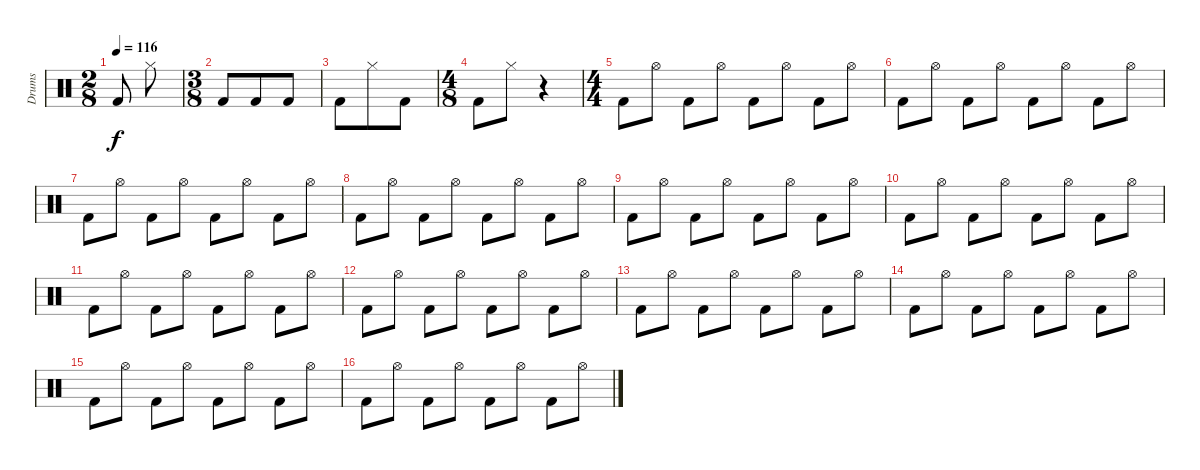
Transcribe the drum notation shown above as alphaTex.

\track ("Drums" "Drums") {instrument percussion}
\staff {score}
\articulation defaults
\ts (2 8)
\tempo 116
\clef neutral
\ks c "Kick (hit) 2".8{dy f} "Hi-Hat (closed)".8
|
\ts (3 8)
"Kick (hit) 2".8 "Kick (hit) 2".8 "Kick (hit) 2".8 |
"Kick (hit) 2".8 "Hi-Hat (closed)".8 "Kick (hit) 2".8 |
\ts (4 8)
"Kick (hit) 2".8 "Hi-Hat (closed)".8 r.4 |
\ts (4 4)
"Kick (hit) 2".8 "Hi-Hat (open)".8 "Kick (hit) 2".8 "Hi-Hat (open)".8 "Kick (hit) 2".8 "Hi-Hat (open)".8 "Kick (hit) 2".8 "Hi-Hat (open)".8 |
"Kick (hit) 2".8 "Hi-Hat (open)".8 "Kick (hit) 2".8 "Hi-Hat (open)".8 "Kick (hit) 2".8 "Hi-Hat (open)".8 "Kick (hit) 2".8 "Hi-Hat (open)".8 |
"Kick (hit) 2".8 "Hi-Hat (open)".8 "Kick (hit) 2".8 "Hi-Hat (open)".8 "Kick (hit) 2".8 "Hi-Hat (open)".8 "Kick (hit) 2".8 "Hi-Hat (open)".8 |
"Kick (hit) 2".8 "Hi-Hat (open)".8 "Kick (hit) 2".8 "Hi-Hat (open)".8 "Kick (hit) 2".8 "Hi-Hat (open)".8 "Kick (hit) 2".8 "Hi-Hat (open)".8 |
"Kick (hit) 2".8 "Hi-Hat (open)".8 "Kick (hit) 2".8 "Hi-Hat (open)".8 "Kick (hit) 2".8 "Hi-Hat (open)".8 "Kick (hit) 2".8 "Hi-Hat (open)".8 |
"Kick (hit) 2".8 "Hi-Hat (open)".8 "Kick (hit) 2".8 "Hi-Hat (open)".8 "Kick (hit) 2".8 "Hi-Hat (open)".8 "Kick (hit) 2".8 "Hi-Hat (open)".8 |
"Kick (hit) 2".8 "Hi-Hat (open)".8 "Kick (hit) 2".8 "Hi-Hat (open)".8 "Kick (hit) 2".8 "Hi-Hat (open)".8 "Kick (hit) 2".8 "Hi-Hat (open)".8 |
"Kick (hit) 2".8 "Hi-Hat (open)".8 "Kick (hit) 2".8 "Hi-Hat (open)".8 "Kick (hit) 2".8 "Hi-Hat (open)".8 "Kick (hit) 2".8 "Hi-Hat (open)".8 |
"Kick (hit) 2".8 "Hi-Hat (open)".8 "Kick (hit) 2".8 "Hi-Hat (open)".8 "Kick (hit) 2".8 "Hi-Hat (open)".8 "Kick (hit) 2".8 "Hi-Hat (open)".8 |
"Kick (hit) 2".8 "Hi-Hat (open)".8 "Kick (hit) 2".8 "Hi-Hat (open)".8 "Kick (hit) 2".8 "Hi-Hat (open)".8 "Kick (hit) 2".8 "Hi-Hat (open)".8 |
"Kick (hit) 2".8 "Hi-Hat (open)".8 "Kick (hit) 2".8 "Hi-Hat (open)".8 "Kick (hit) 2".8 "Hi-Hat (open)".8 "Kick (hit) 2".8 "Hi-Hat (open)".8 |
"Kick (hit) 2".8 "Hi-Hat (open)".8 "Kick (hit) 2".8 "Hi-Hat (open)".8 "Kick (hit) 2".8 "Hi-Hat (open)".8 "Kick (hit) 2".8 "Hi-Hat (open)".8
